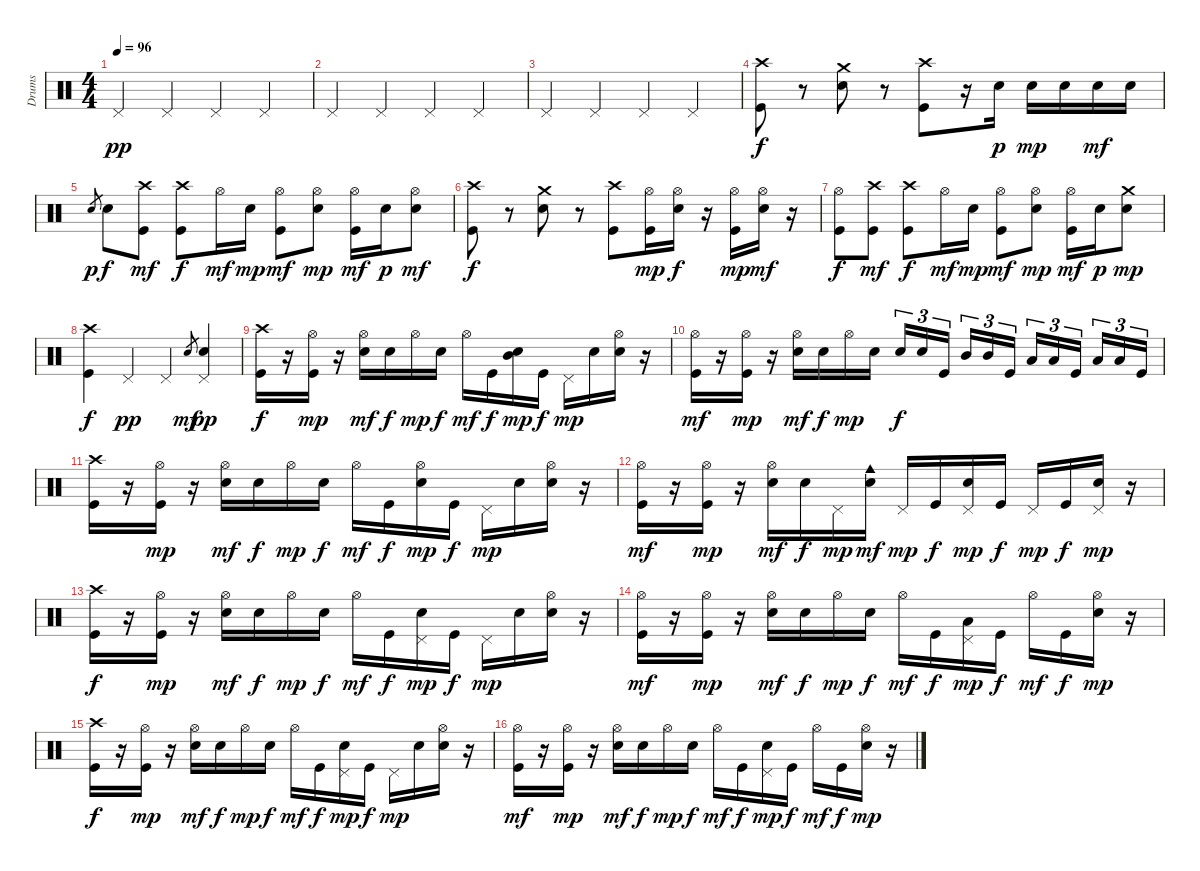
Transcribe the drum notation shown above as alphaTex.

\track ("Drums" "Drums") {instrument percussion}
\staff {score}
\articulation defaults
\ts (4 4)
\tempo 96
\clef neutral
\ks c "Pedal Hi-Hat (hit)".4{dy pp} "Pedal Hi-Hat (hit)".4 "Pedal Hi-Hat (hit)".4 "Pedal Hi-Hat (hit)".4
|
"Pedal Hi-Hat (hit)".4 "Pedal Hi-Hat (hit)".4 "Pedal Hi-Hat (hit)".4 "Pedal Hi-Hat (hit)".4 |
"Pedal Hi-Hat (hit)".4 "Pedal Hi-Hat (hit)".4 "Pedal Hi-Hat (hit)".4 "Pedal Hi-Hat (hit)".4 |
("Crash high (hit)" "Kick (hit)").8{dy f} r.8 ("Crash medium (hit)" "Snare (hit) 2").8 r.8 ("Crash high (hit)" "Kick (hit)").8 r.16 "Snare (hit) 2".16{dy p} "Snare (hit) 2".16{dy mp} "Snare (hit) 2".16 "Snare (hit) 2".16{dy mf} "Snare (hit) 2".16 |
"Snare (hit) 2".8{gr dy p} "Snare (hit) 2".8{dy f} ("Crash high (hit)" "Kick (hit)").8{dy mf} ("Crash high (hit)" "Kick (hit)").8{dy f} "Hi-Hat (open)".16{dy mf} "Snare (hit) 2".16{dy mp} ("Hi-Hat (open)" "Kick (hit)").8{dy mf} ("Hi-Hat (open)" "Snare (hit) 2").8{dy mp} ("Hi-Hat (open)" "Kick (hit)").16{dy mf} "Snare (hit) 2".16{dy p} ("Hi-Hat (open)" "Snare (hit) 2").8{dy mf} |
("Crash high (hit)" "Kick (hit)").8{dy f} r.8 ("Crash medium (hit)" "Snare (hit) 2").8 r.8 ("Crash high (hit)" "Kick (hit)").8 ("Hi-Hat (open)" "Kick (hit)").16{dy mp} ("Hi-Hat (open)" "Snare (hit) 2").16{dy f} r.16 ("Hi-Hat (open)" "Kick (hit)").16{dy mp} ("Hi-Hat (open)" "Snare (hit) 2").16{dy mf} r.16 |
("Hi-Hat (open)" "Kick (hit)").8{dy f} ("Crash high (hit)" "Kick (hit)").8{dy mf} ("Crash high (hit)" "Kick (hit)").8{dy f} "Hi-Hat (open)".16{dy mf} "Snare (hit) 2".16{dy mp} ("Hi-Hat (open)" "Kick (hit)").8{dy mf} ("Hi-Hat (open)" "Snare (hit) 2").8{dy mp} ("Hi-Hat (open)" "Kick (hit)").16{dy mf} "Snare (hit) 2".16{dy p} ("Crash medium (hit)" "Snare (hit) 2").8{dy mp} |
("Crash high (hit)" "Kick (hit)").4{dy f} "Pedal Hi-Hat (hit)".4{dy pp} "Pedal Hi-Hat (hit)".4 "Snare (hit) 2".8{gr dy mf} ("Pedal Hi-Hat (hit)" "Snare (hit) 2").4{dy pp} |
("Crash high (hit)" "Kick (hit)").16{dy f} r.16 ("Hi-Hat (open)" "Kick (hit)").16{dy mp} r.16 ("Hi-Hat (open)" "Snare (hit) 2").16{dy mf} "Snare (hit) 2".16{dy f} "Hi-Hat (open)".16{dy mp} "Snare (hit) 2".16{dy f} "Hi-Hat (open)".16{dy mf} "Kick (hit)".16{dy f} ("Mid Tom (hit)" "Snare (hit) 2").16{dy mp} "Kick (hit)".16{dy f} "Pedal Hi-Hat (hit)".16{dy mp} "Snare (hit) 2".16 ("Hi-Hat (open)" "Snare (hit) 2").16 r.16 |
("Hi-Hat (open)" "Kick (hit)").16{dy mf} r.16 ("Hi-Hat (open)" "Kick (hit)").16{dy mp} r.16 ("Hi-Hat (open)" "Snare (hit) 2").16{dy mf} "Snare (hit) 2".16{dy f} "Hi-Hat (open)".16{dy mp} "Snare (hit) 2".16 "Snare (hit) 2".16{tu (3 2) dy f} "Snare (hit) 2".16{tu (3 2)} "Kick (hit)".16{tu (3 2)} "Mid Tom (hit)".16{tu (3 2)} "Mid Tom (hit)".16{tu (3 2)} "Kick (hit)".16{tu (3 2)} "Low Tom (hit)".16{tu (3 2)} "Low Tom (hit)".16{tu (3 2)} "Kick (hit)".16{tu (3 2)} "Low Tom (hit)".16{tu (3 2)} "Low Tom (hit)".16{tu (3 2)} "Kick (hit)".16{tu (3 2)} |
("Crash high (hit)" "Kick (hit)").16 r.16 ("Hi-Hat (open)" "Kick (hit)").16{dy mp} r.16 ("Hi-Hat (open)" "Snare (hit) 2").16{dy mf} "Snare (hit) 2".16{dy f} "Hi-Hat (open)".16{dy mp} "Snare (hit) 2".16{dy f} "Hi-Hat (open)".16{dy mf} "Kick (hit)".16{dy f} ("Hi-Hat (open)" "Snare (hit) 2").16{dy mp} "Kick (hit)".16{dy f} "Pedal Hi-Hat (hit)".16{dy mp} "Snare (hit) 2".16 ("Hi-Hat (open)" "Snare (hit) 2").16 r.16 |
("Hi-Hat (open)" "Kick (hit)").16{dy mf} r.16 ("Hi-Hat (open)" "Kick (hit)").16{dy mp} r.16 ("Hi-Hat (open)" "Snare (hit) 2").16{dy mf} "Snare (hit) 2".16{dy f} "Pedal Hi-Hat (hit)".16{dy mp} ("Cowbell medium (hit)" "Snare (hit) 2").16{dy mf} "Pedal Hi-Hat (hit)".16{dy mp} "Kick (hit)".16{dy f} ("Pedal Hi-Hat (hit)" "Snare (hit) 2").16{dy mp} "Kick (hit)".16{dy f} "Pedal Hi-Hat (hit)".16{dy mp} "Kick (hit)".16{dy f} ("Pedal Hi-Hat (hit)" "Snare (hit) 2").16{dy mp} r.16 |
("Crash high (hit)" "Kick (hit)").16{dy f} r.16 ("Hi-Hat (open)" "Kick (hit)").16{dy mp} r.16 ("Hi-Hat (open)" "Snare (hit) 2").16{dy mf} "Snare (hit) 2".16{dy f} "Hi-Hat (open)".16{dy mp} "Snare (hit) 2".16{dy f} "Hi-Hat (open)".16{dy mf} "Kick (hit)".16{dy f} ("Pedal Hi-Hat (hit)" "Snare (hit) 2").16{dy mp} "Kick (hit)".16{dy f} "Pedal Hi-Hat (hit)".16{dy mp} "Snare (hit) 2".16 ("Hi-Hat (open)" "Snare (hit) 2").16 r.16 |
("Hi-Hat (open)" "Kick (hit)").16{dy mf} r.16 ("Hi-Hat (open)" "Kick (hit)").16{dy mp} r.16 ("Hi-Hat (open)" "Snare (hit) 2").16{dy mf} "Snare (hit) 2".16{dy f} "Hi-Hat (open)".16{dy mp} "Snare (hit) 2".16{dy f} "Hi-Hat (open)".16{dy mf} "Kick (hit)".16{dy f} ("Pedal Hi-Hat (hit)" "Low Tom (hit)").16{dy mp} "Kick (hit)".16{dy f} "Hi-Hat (open)".16{dy mf} "Kick (hit)".16{dy f} ("Hi-Hat (open)" "Snare (hit) 2").16{dy mp} r.16 |
("Crash high (hit)" "Kick (hit)").16{dy f} r.16 ("Hi-Hat (open)" "Kick (hit)").16{dy mp} r.16 ("Hi-Hat (open)" "Snare (hit) 2").16{dy mf} "Snare (hit) 2".16{dy f} "Hi-Hat (open)".16{dy mp} "Snare (hit) 2".16{dy f} "Hi-Hat (open)".16{dy mf} "Kick (hit)".16{dy f} ("Pedal Hi-Hat (hit)" "Snare (hit) 2").16{dy mp} "Kick (hit)".16{dy f} "Pedal Hi-Hat (hit)".16{dy mp} "Snare (hit) 2".16 ("Hi-Hat (open)" "Snare (hit) 2").16 r.16 |
("Hi-Hat (open)" "Kick (hit)").16{dy mf} r.16 ("Hi-Hat (open)" "Kick (hit)").16{dy mp} r.16 ("Hi-Hat (open)" "Snare (hit) 2").16{dy mf} "Snare (hit) 2".16{dy f} "Hi-Hat (open)".16{dy mp} "Snare (hit) 2".16{dy f} "Hi-Hat (open)".16{dy mf} "Kick (hit)".16{dy f} ("Pedal Hi-Hat (hit)" "Snare (hit) 2").16{dy mp} "Kick (hit)".16{dy f} "Hi-Hat (open)".16{dy mf} "Kick (hit)".16{dy f} ("Hi-Hat (open)" "Snare (hit) 2").16{dy mp} r.16
